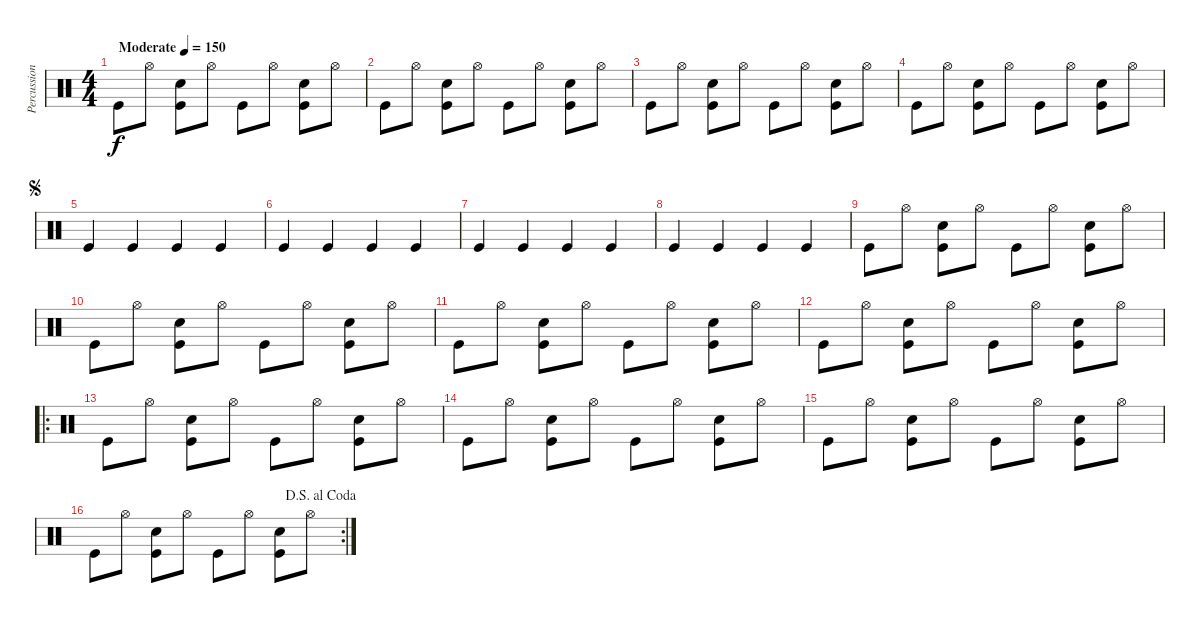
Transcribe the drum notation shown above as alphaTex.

\track ("Percussion" "Percussion") {instrument percussion}
\staff {score}
\articulation defaults
\ts (4 4)
\tempo (150 "Moderate")
\clef neutral
\ks c "Kick (hit)".8{dy f} "Hi-Hat (open)".8
("Hand Clap (hit)" "Kick (hit)").8 "Hi-Hat (open)".8 "Kick (hit)".8 "Hi-Hat (open)".8 ("Hand Clap (hit)" "Kick (hit)").8 "Hi-Hat (open)".8 |
"Kick (hit)".8 "Hi-Hat (open)".8 ("Hand Clap (hit)" "Kick (hit)").8 "Hi-Hat (open)".8 "Kick (hit)".8 "Hi-Hat (open)".8 ("Hand Clap (hit)" "Kick (hit)").8 "Hi-Hat (open)".8 |
"Kick (hit)".8 "Hi-Hat (open)".8 ("Hand Clap (hit)" "Kick (hit)").8 "Hi-Hat (open)".8 "Kick (hit)".8 "Hi-Hat (open)".8 ("Hand Clap (hit)" "Kick (hit)").8 "Hi-Hat (open)".8 |
"Kick (hit)".8 "Hi-Hat (open)".8 ("Hand Clap (hit)" "Kick (hit)").8 "Hi-Hat (open)".8 "Kick (hit)".8 "Hi-Hat (open)".8 ("Hand Clap (hit)" "Kick (hit)").8 "Hi-Hat (open)".8 |
\jump segno "Kick (hit)".4 "Kick (hit)".4 "Kick (hit)".4 "Kick (hit)".4
|
"Kick (hit)".4 "Kick (hit)".4 "Kick (hit)".4 "Kick (hit)".4 |
"Kick (hit)".4 "Kick (hit)".4 "Kick (hit)".4 "Kick (hit)".4 |
"Kick (hit)".4 "Kick (hit)".4 "Kick (hit)".4 "Kick (hit)".4 |
"Kick (hit)".8 "Hi-Hat (open)".8 ("Hand Clap (hit)" "Kick (hit)").8 "Hi-Hat (open)".8 "Kick (hit)".8 "Hi-Hat (open)".8 ("Hand Clap (hit)" "Kick (hit)").8 "Hi-Hat (open)".8 |
"Kick (hit)".8 "Hi-Hat (open)".8 ("Hand Clap (hit)" "Kick (hit)").8 "Hi-Hat (open)".8 "Kick (hit)".8 "Hi-Hat (open)".8 ("Hand Clap (hit)" "Kick (hit)").8 "Hi-Hat (open)".8 |
"Kick (hit)".8 "Hi-Hat (open)".8 ("Hand Clap (hit)" "Kick (hit)").8 "Hi-Hat (open)".8 "Kick (hit)".8 "Hi-Hat (open)".8 ("Hand Clap (hit)" "Kick (hit)").8 "Hi-Hat (open)".8 |
"Kick (hit)".8 "Hi-Hat (open)".8 ("Hand Clap (hit)" "Kick (hit)").8 "Hi-Hat (open)".8 "Kick (hit)".8 "Hi-Hat (open)".8 ("Hand Clap (hit)" "Kick (hit)").8 "Hi-Hat (open)".8 |
\ro "Kick (hit)".8 "Hi-Hat (open)".8
("Hand Clap (hit)" "Kick (hit)").8 "Hi-Hat (open)".8 "Kick (hit)".8 "Hi-Hat (open)".8 ("Hand Clap (hit)" "Kick (hit)").8 "Hi-Hat (open)".8 |
"Kick (hit)".8 "Hi-Hat (open)".8 ("Hand Clap (hit)" "Kick (hit)").8 "Hi-Hat (open)".8 "Kick (hit)".8 "Hi-Hat (open)".8 ("Hand Clap (hit)" "Kick (hit)").8 "Hi-Hat (open)".8 |
"Kick (hit)".8 "Hi-Hat (open)".8 ("Hand Clap (hit)" "Kick (hit)").8 "Hi-Hat (open)".8 "Kick (hit)".8 "Hi-Hat (open)".8 ("Hand Clap (hit)" "Kick (hit)").8 "Hi-Hat (open)".8 |
\rc 2
\jump dalsegnoalcoda "Kick (hit)".8 "Hi-Hat (open)".8
("Hand Clap (hit)" "Kick (hit)").8 "Hi-Hat (open)".8 "Kick (hit)".8 "Hi-Hat (open)".8 ("Hand Clap (hit)" "Kick (hit)").8 "Hi-Hat (open)".8
